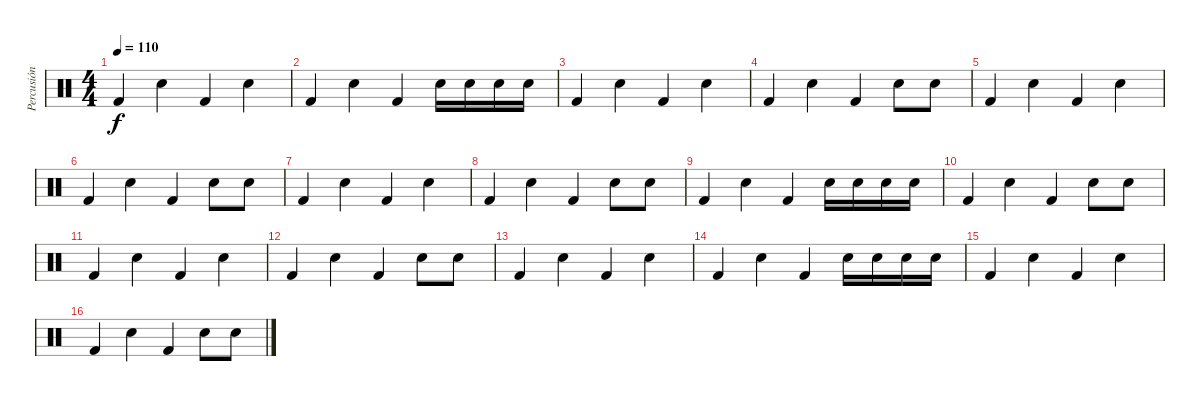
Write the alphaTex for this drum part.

\track ("Percusión" "Percusión") {instrument percussion}
\staff {score}
\articulation defaults
\ts (4 4)
\tempo 110
\clef neutral
\ks c "Kick (hit) 2".4{dy f} "Snare (hit) 2".4 "Kick (hit) 2".4 "Snare (hit) 2".4
|
"Kick (hit) 2".4 "Snare (hit) 2".4 "Kick (hit) 2".4 "Snare (hit) 2".16 "Snare (hit) 2".16 "Snare (hit) 2".16 "Snare (hit) 2".16 |
"Kick (hit) 2".4 "Snare (hit) 2".4 "Kick (hit) 2".4 "Snare (hit) 2".4 |
"Kick (hit) 2".4 "Snare (hit) 2".4 "Kick (hit) 2".4 "Snare (hit) 2".8 "Snare (hit) 2".8 |
"Kick (hit) 2".4 "Snare (hit) 2".4 "Kick (hit) 2".4 "Snare (hit) 2".4 |
"Kick (hit) 2".4 "Snare (hit) 2".4 "Kick (hit) 2".4 "Snare (hit) 2".8 "Snare (hit) 2".8 |
"Kick (hit) 2".4 "Snare (hit) 2".4 "Kick (hit) 2".4 "Snare (hit) 2".4 |
"Kick (hit) 2".4 "Snare (hit) 2".4 "Kick (hit) 2".4 "Snare (hit) 2".8 "Snare (hit) 2".8 |
"Kick (hit) 2".4 "Snare (hit) 2".4 "Kick (hit) 2".4 "Snare (hit) 2".16 "Snare (hit) 2".16 "Snare (hit) 2".16 "Snare (hit) 2".16 |
"Kick (hit) 2".4 "Snare (hit) 2".4 "Kick (hit) 2".4 "Snare (hit) 2".8 "Snare (hit) 2".8 |
"Kick (hit) 2".4 "Snare (hit) 2".4 "Kick (hit) 2".4 "Snare (hit) 2".4 |
"Kick (hit) 2".4 "Snare (hit) 2".4 "Kick (hit) 2".4 "Snare (hit) 2".8 "Snare (hit) 2".8 |
"Kick (hit) 2".4 "Snare (hit) 2".4 "Kick (hit) 2".4 "Snare (hit) 2".4 |
"Kick (hit) 2".4 "Snare (hit) 2".4 "Kick (hit) 2".4 "Snare (hit) 2".16 "Snare (hit) 2".16 "Snare (hit) 2".16 "Snare (hit) 2".16 |
"Kick (hit) 2".4 "Snare (hit) 2".4 "Kick (hit) 2".4 "Snare (hit) 2".4 |
"Kick (hit) 2".4 "Snare (hit) 2".4 "Kick (hit) 2".4 "Snare (hit) 2".8 "Snare (hit) 2".8
